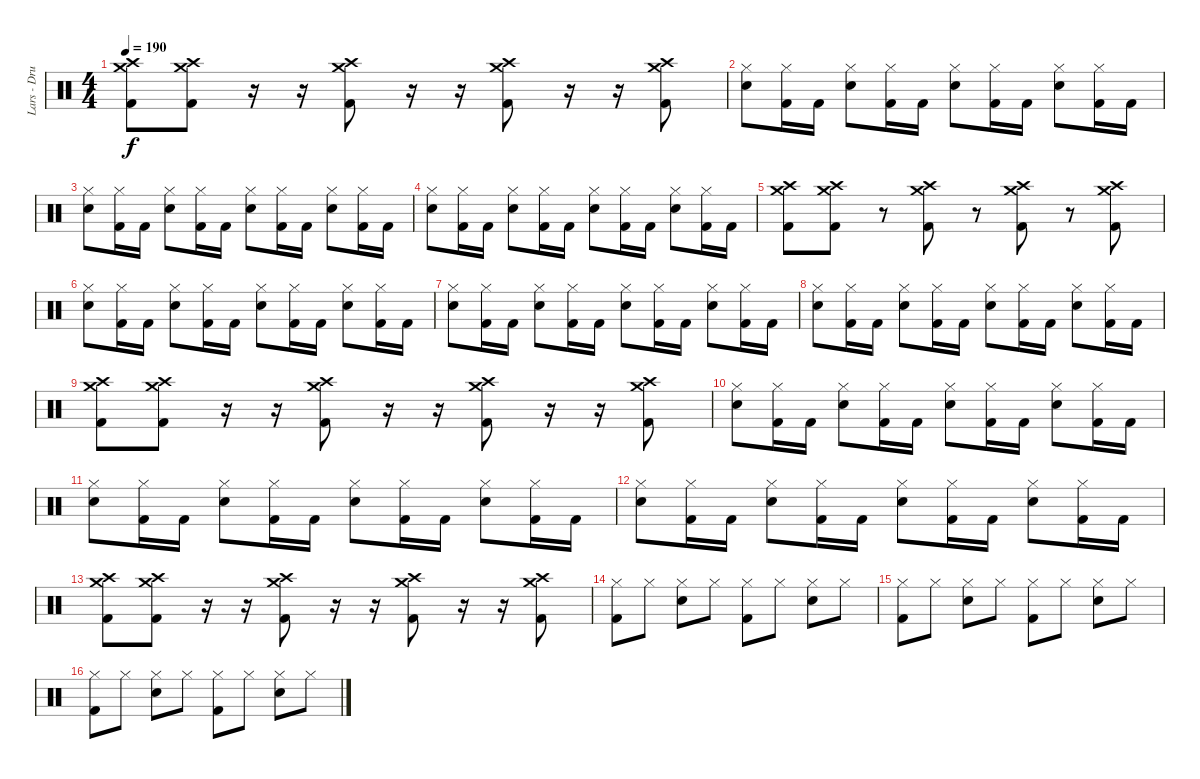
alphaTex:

\track ("Lars - Drums" "Lars - Dru") {instrument percussion}
\staff {score}
\articulation defaults
\ts (4 4)
\tempo 190
\clef neutral
\ks c
("Crash high (hit)" "Crash medium (hit)" "Kick (hit) 2").8{dy f} ("Crash high (hit)" "Crash medium (hit)" "Kick (hit) 2").8 r.16 r.16 ("Crash high (hit)" "Crash medium (hit)" "Kick (hit) 2").8 r.16 r.16 ("Crash high (hit)" "Crash medium (hit)" "Kick (hit) 2").8 r.16 r.16 ("Crash high (hit)" "Crash medium (hit)" "Kick (hit) 2").8 |
("Snare (hit) 2" "Hi-Hat (closed)").8 ("Kick (hit) 2" "Hi-Hat (closed)").16 "Kick (hit) 2".16 ("Snare (hit) 2" "Hi-Hat (closed)").8 ("Kick (hit) 2" "Hi-Hat (closed)").16 "Kick (hit) 2".16 ("Snare (hit) 2" "Hi-Hat (closed)").8 ("Kick (hit) 2" "Hi-Hat (closed)").16 "Kick (hit) 2".16 ("Snare (hit) 2" "Hi-Hat (closed)").8 ("Kick (hit) 2" "Hi-Hat (closed)").16 "Kick (hit) 2".16 |
("Snare (hit) 2" "Hi-Hat (closed)").8 ("Kick (hit) 2" "Hi-Hat (closed)").16 "Kick (hit) 2".16 ("Snare (hit) 2" "Hi-Hat (closed)").8 ("Kick (hit) 2" "Hi-Hat (closed)").16 "Kick (hit) 2".16 ("Snare (hit) 2" "Hi-Hat (closed)").8 ("Kick (hit) 2" "Hi-Hat (closed)").16 "Kick (hit) 2".16 ("Snare (hit) 2" "Hi-Hat (closed)").8 ("Kick (hit) 2" "Hi-Hat (closed)").16 "Kick (hit) 2".16 |
("Snare (hit) 2" "Hi-Hat (closed)").8 ("Kick (hit) 2" "Hi-Hat (closed)").16 "Kick (hit) 2".16 ("Snare (hit) 2" "Hi-Hat (closed)").8 ("Kick (hit) 2" "Hi-Hat (closed)").16 "Kick (hit) 2".16 ("Snare (hit) 2" "Hi-Hat (closed)").8 ("Kick (hit) 2" "Hi-Hat (closed)").16 "Kick (hit) 2".16 ("Snare (hit) 2" "Hi-Hat (closed)").8 ("Kick (hit) 2" "Hi-Hat (closed)").16 "Kick (hit) 2".16 |
("Crash high (hit)" "Crash medium (hit)" "Kick (hit) 2").8 ("Crash high (hit)" "Crash medium (hit)" "Kick (hit) 2").8 r.8 ("Crash high (hit)" "Crash medium (hit)" "Kick (hit) 2").8 r.8 ("Crash high (hit)" "Crash medium (hit)" "Kick (hit) 2").8 r.8 ("Crash high (hit)" "Crash medium (hit)" "Kick (hit) 2").8 |
("Snare (hit) 2" "Hi-Hat (closed)").8 ("Kick (hit) 2" "Hi-Hat (closed)").16 "Kick (hit) 2".16 ("Snare (hit) 2" "Hi-Hat (closed)").8 ("Kick (hit) 2" "Hi-Hat (closed)").16 "Kick (hit) 2".16 ("Snare (hit) 2" "Hi-Hat (closed)").8 ("Kick (hit) 2" "Hi-Hat (closed)").16 "Kick (hit) 2".16 ("Snare (hit) 2" "Hi-Hat (closed)").8 ("Kick (hit) 2" "Hi-Hat (closed)").16 "Kick (hit) 2".16 |
("Snare (hit) 2" "Hi-Hat (closed)").8 ("Kick (hit) 2" "Hi-Hat (closed)").16 "Kick (hit) 2".16 ("Snare (hit) 2" "Hi-Hat (closed)").8 ("Kick (hit) 2" "Hi-Hat (closed)").16 "Kick (hit) 2".16 ("Snare (hit) 2" "Hi-Hat (closed)").8 ("Kick (hit) 2" "Hi-Hat (closed)").16 "Kick (hit) 2".16 ("Snare (hit) 2" "Hi-Hat (closed)").8 ("Kick (hit) 2" "Hi-Hat (closed)").16 "Kick (hit) 2".16 |
("Snare (hit) 2" "Hi-Hat (closed)").8 ("Kick (hit) 2" "Hi-Hat (closed)").16 "Kick (hit) 2".16 ("Snare (hit) 2" "Hi-Hat (closed)").8 ("Kick (hit) 2" "Hi-Hat (closed)").16 "Kick (hit) 2".16 ("Snare (hit) 2" "Hi-Hat (closed)").8 ("Kick (hit) 2" "Hi-Hat (closed)").16 "Kick (hit) 2".16 ("Snare (hit) 2" "Hi-Hat (closed)").8 ("Kick (hit) 2" "Hi-Hat (closed)").16 "Kick (hit) 2".16 |
("Crash high (hit)" "Crash medium (hit)" "Kick (hit) 2").8 ("Crash high (hit)" "Crash medium (hit)" "Kick (hit) 2").8 r.16 r.16 ("Crash high (hit)" "Crash medium (hit)" "Kick (hit) 2").8 r.16 r.16 ("Crash high (hit)" "Crash medium (hit)" "Kick (hit) 2").8 r.16 r.16 ("Crash high (hit)" "Crash medium (hit)" "Kick (hit) 2").8 |
("Snare (hit) 2" "Hi-Hat (closed)").8 ("Kick (hit) 2" "Hi-Hat (closed)").16 "Kick (hit) 2".16 ("Snare (hit) 2" "Hi-Hat (closed)").8 ("Kick (hit) 2" "Hi-Hat (closed)").16 "Kick (hit) 2".16 ("Snare (hit) 2" "Hi-Hat (closed)").8 ("Kick (hit) 2" "Hi-Hat (closed)").16 "Kick (hit) 2".16 ("Snare (hit) 2" "Hi-Hat (closed)").8 ("Kick (hit) 2" "Hi-Hat (closed)").16 "Kick (hit) 2".16 |
("Snare (hit) 2" "Hi-Hat (closed)").8 ("Kick (hit) 2" "Hi-Hat (closed)").16 "Kick (hit) 2".16 ("Snare (hit) 2" "Hi-Hat (closed)").8 ("Kick (hit) 2" "Hi-Hat (closed)").16 "Kick (hit) 2".16 ("Snare (hit) 2" "Hi-Hat (closed)").8 ("Kick (hit) 2" "Hi-Hat (closed)").16 "Kick (hit) 2".16 ("Snare (hit) 2" "Hi-Hat (closed)").8 ("Kick (hit) 2" "Hi-Hat (closed)").16 "Kick (hit) 2".16 |
("Snare (hit) 2" "Hi-Hat (closed)").8 ("Kick (hit) 2" "Hi-Hat (closed)").16 "Kick (hit) 2".16 ("Snare (hit) 2" "Hi-Hat (closed)").8 ("Kick (hit) 2" "Hi-Hat (closed)").16 "Kick (hit) 2".16 ("Snare (hit) 2" "Hi-Hat (closed)").8 ("Kick (hit) 2" "Hi-Hat (closed)").16 "Kick (hit) 2".16 ("Snare (hit) 2" "Hi-Hat (closed)").8 ("Kick (hit) 2" "Hi-Hat (closed)").16 "Kick (hit) 2".16 |
("Crash high (hit)" "Crash medium (hit)" "Kick (hit) 2").8 ("Crash high (hit)" "Crash medium (hit)" "Kick (hit) 2").8 r.16 r.16 ("Crash high (hit)" "Crash medium (hit)" "Kick (hit) 2").8 r.16 r.16 ("Crash high (hit)" "Crash medium (hit)" "Kick (hit) 2").8 r.16 r.16 ("Crash high (hit)" "Crash medium (hit)" "Kick (hit) 2").8 |
("Kick (hit) 2" "Hi-Hat (closed)").8 "Hi-Hat (closed)".8 ("Snare (hit) 2" "Hi-Hat (closed)").8 "Hi-Hat (closed)".8 ("Kick (hit) 2" "Hi-Hat (closed)").8 "Hi-Hat (closed)".8 ("Snare (hit) 2" "Hi-Hat (closed)").8 "Hi-Hat (closed)".8 |
("Kick (hit) 2" "Hi-Hat (closed)").8 "Hi-Hat (closed)".8 ("Snare (hit) 2" "Hi-Hat (closed)").8 "Hi-Hat (closed)".8 ("Kick (hit) 2" "Hi-Hat (closed)").8 "Hi-Hat (closed)".8 ("Snare (hit) 2" "Hi-Hat (closed)").8 "Hi-Hat (closed)".8 |
("Kick (hit) 2" "Hi-Hat (closed)").8 "Hi-Hat (closed)".8 ("Snare (hit) 2" "Hi-Hat (closed)").8 "Hi-Hat (closed)".8 ("Kick (hit) 2" "Hi-Hat (closed)").8 "Hi-Hat (closed)".8 ("Snare (hit) 2" "Hi-Hat (closed)").8 "Hi-Hat (closed)".8
